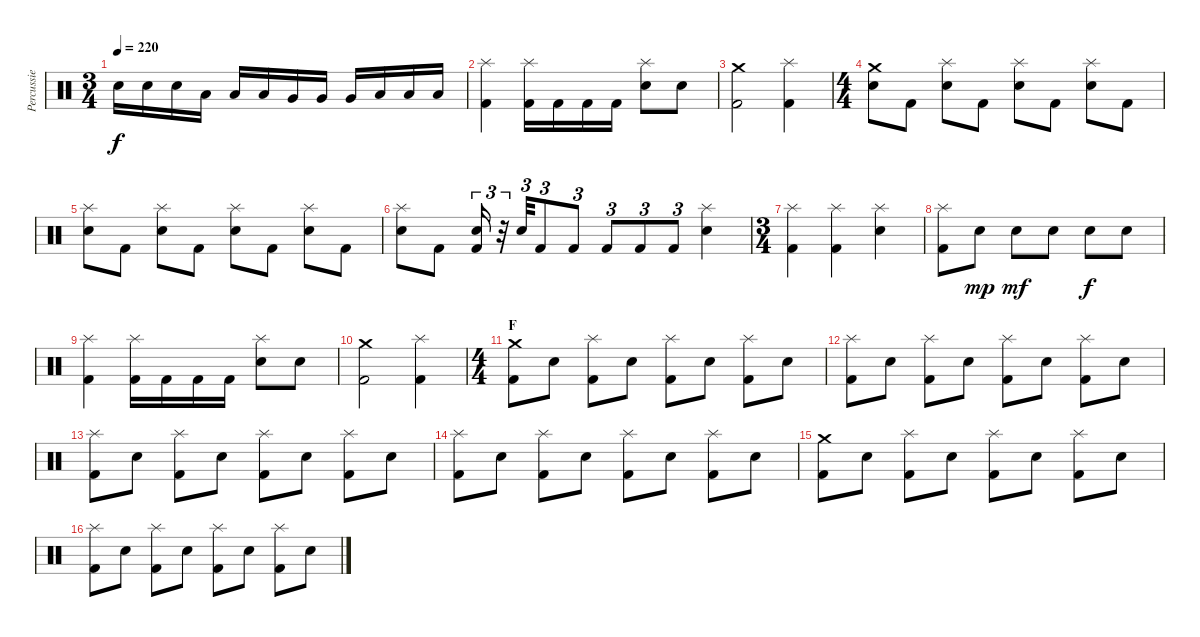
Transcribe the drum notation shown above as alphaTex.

\track ("Percussie" "Percussie") {instrument percussion}
\staff {score}
\articulation defaults
\ts (3 4)
\tempo 220
\clef neutral
\ks c "Electric Snare (hit)".16{dy f} "Electric Snare (hit)".16 "Electric Snare (hit)".16 "Low Tom (hit)".16 "Low Tom (hit)".16 "Low Tom (hit)".16 "Very Low Tom (hit)".16 "Very Low Tom (hit)".16 "Very Low Tom (hit)".16 "Low Floor Tom (hit)".16 "Low Floor Tom (hit)".16 "Low Floor Tom (hit)".16
|
("Splash (hit)" "Kick (hit) 2").4 ("Splash (hit)" "Kick (hit) 2").16 "Kick (hit) 2".16 "Kick (hit) 2".16 "Kick (hit) 2".16 ("Splash (hit)" "Electric Snare (hit)").8 "Electric Snare (hit)".8 |
("Crash medium (hit)" "Kick (hit) 2").2 ("Splash (hit)" "Kick (hit) 2").4 |
\ts (4 4)
("Crash medium (hit)" "Electric Snare (hit)").8 "Kick (hit) 2".8 ("Splash (hit)" "Electric Snare (hit)").8 "Kick (hit) 2".8 ("Splash (hit)" "Electric Snare (hit)").8 "Kick (hit) 2".8 ("Splash (hit)" "Electric Snare (hit)").8 "Kick (hit) 2".8 |
("Splash (hit)" "Electric Snare (hit)").8 "Kick (hit) 2".8 ("Splash (hit)" "Electric Snare (hit)").8 "Kick (hit) 2".8 ("Splash (hit)" "Electric Snare (hit)").8 "Kick (hit) 2".8 ("Splash (hit)" "Electric Snare (hit)").8 "Kick (hit) 2".8 |
("Splash (hit)" "Electric Snare (hit)").8 "Kick (hit) 2".8 ("Electric Snare (hit)" "Kick (hit) 2").16{tu (3 2)} r.32{tu (3 2)} "Electric Snare (hit)".32{tu (3 2)} "Kick (hit) 2".8{tu (3 2)} "Kick (hit) 2".8{tu (3 2)} "Kick (hit) 2".8{tu (3 2)} "Kick (hit) 2".8{tu (3 2)} "Kick (hit) 2".8{tu (3 2)} ("Splash (hit)" "Electric Snare (hit)").4 |
\ts (3 4)
("Splash (hit)" "Kick (hit) 2").4 ("Splash (hit)" "Kick (hit) 2").4 ("Splash (hit)" "Electric Snare (hit)").4 |
("Splash (hit)" "Kick (hit) 2").8 "Electric Snare (hit)".8{dy mp} "Electric Snare (hit)".8{dy mf} "Electric Snare (hit)".8 "Electric Snare (hit)".8{dy f} "Electric Snare (hit)".8 |
("Splash (hit)" "Kick (hit) 2").4 ("Splash (hit)" "Kick (hit) 2").16 "Kick (hit) 2".16 "Kick (hit) 2".16 "Kick (hit) 2".16 ("Splash (hit)" "Electric Snare (hit)").8 "Electric Snare (hit)".8 |
("Crash medium (hit)" "Kick (hit) 2").2 ("Splash (hit)" "Kick (hit) 2").4 |
\ts (4 4)
\section ("" "F")
("Crash medium (hit)" "Kick (hit) 2").8 "Electric Snare (hit)".8 ("Splash (hit)" "Kick (hit) 2").8 "Electric Snare (hit)".8 ("Splash (hit)" "Kick (hit) 2").8 "Electric Snare (hit)".8 ("Splash (hit)" "Kick (hit) 2").8 "Electric Snare (hit)".8 |
("Splash (hit)" "Kick (hit) 2").8 "Electric Snare (hit)".8 ("Splash (hit)" "Kick (hit) 2").8 "Electric Snare (hit)".8 ("Splash (hit)" "Kick (hit) 2").8 "Electric Snare (hit)".8 ("Splash (hit)" "Kick (hit) 2").8 "Electric Snare (hit)".8 |
("Splash (hit)" "Kick (hit) 2").8 "Electric Snare (hit)".8 ("Splash (hit)" "Kick (hit) 2").8 "Electric Snare (hit)".8 ("Splash (hit)" "Kick (hit) 2").8 "Electric Snare (hit)".8 ("Splash (hit)" "Kick (hit) 2").8 "Electric Snare (hit)".8 |
("Splash (hit)" "Kick (hit) 2").8 "Electric Snare (hit)".8 ("Splash (hit)" "Kick (hit) 2").8 "Electric Snare (hit)".8 ("Splash (hit)" "Kick (hit) 2").8 "Electric Snare (hit)".8 ("Splash (hit)" "Kick (hit) 2").8 "Electric Snare (hit)".8 |
("Crash medium (hit)" "Kick (hit) 2").8 "Electric Snare (hit)".8 ("Splash (hit)" "Kick (hit) 2").8 "Electric Snare (hit)".8 ("Splash (hit)" "Kick (hit) 2").8 "Electric Snare (hit)".8 ("Splash (hit)" "Kick (hit) 2").8 "Electric Snare (hit)".8 |
("Splash (hit)" "Kick (hit) 2").8 "Electric Snare (hit)".8 ("Splash (hit)" "Kick (hit) 2").8 "Electric Snare (hit)".8 ("Splash (hit)" "Kick (hit) 2").8 "Electric Snare (hit)".8 ("Splash (hit)" "Kick (hit) 2").8 "Electric Snare (hit)".8
